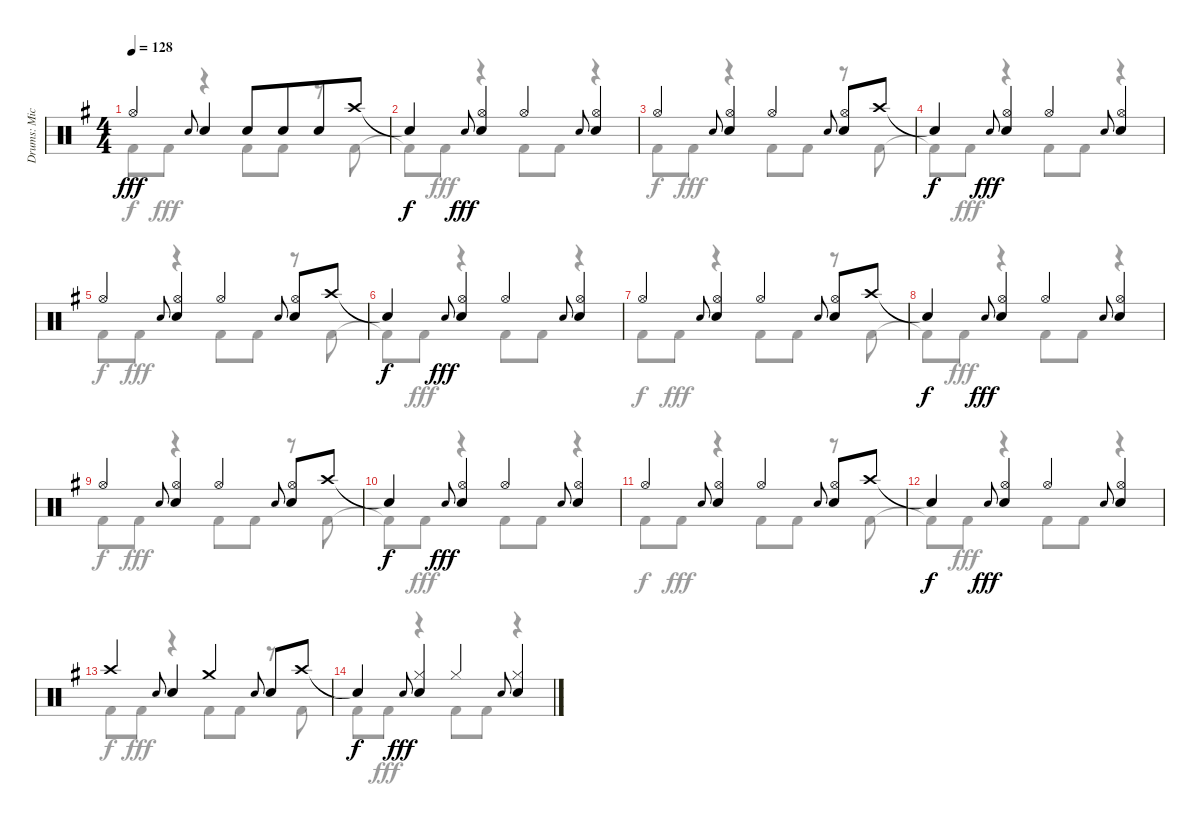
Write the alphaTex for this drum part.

\track ("Drums: Mick" "Drums: Mic") {instrument percussion}
\staff {score}
\articulation defaults
\voice
\ts (4 4)
\tempo 128
\clef neutral
\ks g "Hi-Hat (open)".4{dy fff} "Electric Snare (hit)".8{gr onbeat} "Snare (hit) 2".4 "Snare (hit) 2".8 "Snare (hit) 2".8{beam merge} "Snare (hit) 2".8 "Crash high (hit)".8
|
"Snare (hit)"{t}.4{dy f} "Electric Snare (hit)".8{gr onbeat dy fff} ("Hi-Hat (open)" "Snare (hit) 2").4 "Hi-Hat (open)".4 "Electric Snare (hit)".8{gr onbeat} ("Hi-Hat (open)" "Snare (hit) 2").4 |
"Hi-Hat (open)".4 "Electric Snare (hit)".8{gr onbeat} ("Hi-Hat (open)" "Snare (hit) 2").4 "Hi-Hat (open)".4 "Electric Snare (hit)".8{gr onbeat} ("Hi-Hat (open)" "Snare (hit) 2").8 "Crash high (hit)".8 |
"Snare (hit)"{t}.4{dy f} "Electric Snare (hit)".8{gr onbeat dy fff} ("Hi-Hat (open)" "Snare (hit) 2").4 "Hi-Hat (open)".4 "Electric Snare (hit)".8{gr onbeat} ("Hi-Hat (open)" "Snare (hit) 2").4 |
"Hi-Hat (open)".4 "Electric Snare (hit)".8{gr onbeat} ("Hi-Hat (open)" "Snare (hit) 2").4 "Hi-Hat (open)".4 "Electric Snare (hit)".8{gr onbeat} ("Hi-Hat (open)" "Snare (hit) 2").8 "Crash high (hit)".8 |
"Snare (hit)"{t}.4{dy f} "Electric Snare (hit)".8{gr onbeat dy fff} ("Hi-Hat (open)" "Snare (hit) 2").4 "Hi-Hat (open)".4 "Electric Snare (hit)".8{gr onbeat} ("Hi-Hat (open)" "Snare (hit) 2").4 |
"Hi-Hat (open)".4 "Electric Snare (hit)".8{gr onbeat} ("Hi-Hat (open)" "Snare (hit) 2").4 "Hi-Hat (open)".4 "Electric Snare (hit)".8{gr onbeat} ("Hi-Hat (open)" "Snare (hit) 2").8 "Crash high (hit)".8 |
"Snare (hit)"{t}.4{dy f} "Electric Snare (hit)".8{gr onbeat dy fff} ("Hi-Hat (open)" "Snare (hit) 2").4 "Hi-Hat (open)".4 "Electric Snare (hit)".8{gr onbeat} ("Hi-Hat (open)" "Snare (hit) 2").4 |
"Hi-Hat (open)".4 "Electric Snare (hit)".8{gr onbeat} ("Hi-Hat (open)" "Snare (hit) 2").4 "Hi-Hat (open)".4 "Electric Snare (hit)".8{gr onbeat} ("Hi-Hat (open)" "Snare (hit) 2").8 "Crash high (hit)".8 |
"Snare (hit)"{t}.4{dy f} "Electric Snare (hit)".8{gr onbeat dy fff} ("Hi-Hat (open)" "Snare (hit) 2").4 "Hi-Hat (open)".4 "Electric Snare (hit)".8{gr onbeat} ("Hi-Hat (open)" "Snare (hit) 2").4 |
"Hi-Hat (open)".4 "Electric Snare (hit)".8{gr onbeat} ("Hi-Hat (open)" "Snare (hit) 2").4 "Hi-Hat (open)".4 "Electric Snare (hit)".8{gr onbeat} ("Hi-Hat (open)" "Snare (hit) 2").8 "Crash high (hit)".8 |
"Snare (hit)"{t}.4{dy f} "Electric Snare (hit)".8{gr onbeat dy fff} ("Hi-Hat (open)" "Snare (hit) 2").4 "Hi-Hat (open)".4 "Electric Snare (hit)".8{gr onbeat} ("Hi-Hat (open)" "Snare (hit) 2").4 |
"Crash high (hit)".4 "Electric Snare (hit)".8{gr onbeat} "Snare (hit) 2".4 "Crash medium (hit)".4 "Electric Snare (hit)".8{gr onbeat} "Snare (hit) 2".8 "Crash high (hit)".8 |
"Snare (hit)"{t}.4{dy f} "Electric Snare (hit)".8{gr onbeat dy fff} ("Hi-Hat (closed)" "Snare (hit) 2").4 "Hi-Hat (closed)".4 "Electric Snare (hit)".8{gr onbeat} ("Hi-Hat (closed)" "Snare (hit) 2").4 |
\voice
\clef neutral
\ottava regular
\simile none
\ks g "Kick (hit) 2".8{dy f} "Kick (hit) 2".8{dy fff}
r.4 "Kick (hit) 2".8 "Kick (hit) 2".8 r.8 "Kick (hit) 2".8 |
"Kick (hit) 2"{t}.8{dy f} "Kick (hit) 2".8{dy fff} r.4 "Kick (hit) 2".8 "Kick (hit) 2".8 r.4 |
"Kick (hit) 2".8{dy f} "Kick (hit) 2".8{dy fff} r.4 "Kick (hit) 2".8 "Kick (hit) 2".8 r.8 "Kick (hit) 2".8 |
"Kick (hit) 2"{t}.8{dy f} "Kick (hit) 2".8{dy fff} r.4 "Kick (hit) 2".8 "Kick (hit) 2".8 r.4 |
"Kick (hit) 2".8{dy f} "Kick (hit) 2".8{dy fff} r.4 "Kick (hit) 2".8 "Kick (hit) 2".8 r.8 "Kick (hit) 2".8 |
"Kick (hit) 2"{t}.8{dy f} "Kick (hit) 2".8{dy fff} r.4 "Kick (hit) 2".8 "Kick (hit) 2".8 r.4 |
"Kick (hit) 2".8{dy f} "Kick (hit) 2".8{dy fff} r.4 "Kick (hit) 2".8 "Kick (hit) 2".8 r.8 "Kick (hit) 2".8 |
"Kick (hit) 2"{t}.8{dy f} "Kick (hit) 2".8{dy fff} r.4 "Kick (hit) 2".8 "Kick (hit) 2".8 r.4 |
"Kick (hit) 2".8{dy f} "Kick (hit) 2".8{dy fff} r.4 "Kick (hit) 2".8 "Kick (hit) 2".8 r.8 "Kick (hit) 2".8 |
"Kick (hit) 2"{t}.8{dy f} "Kick (hit) 2".8{dy fff} r.4 "Kick (hit) 2".8 "Kick (hit) 2".8 r.4 |
"Kick (hit) 2".8{dy f} "Kick (hit) 2".8{dy fff} r.4 "Kick (hit) 2".8 "Kick (hit) 2".8 r.8 "Kick (hit) 2".8 |
"Kick (hit) 2"{t}.8{dy f} "Kick (hit) 2".8{dy fff} r.4 "Kick (hit) 2".8 "Kick (hit) 2".8 r.4 |
"Kick (hit) 2".8{dy f} "Kick (hit) 2".8{dy fff} r.4 "Kick (hit) 2".8 "Kick (hit) 2".8 r.8 "Kick (hit) 2".8 |
"Kick (hit) 2".8{dy f} "Kick (hit) 2".8{dy fff} r.4 "Kick (hit) 2".8 "Kick (hit) 2".8 r.4 |
